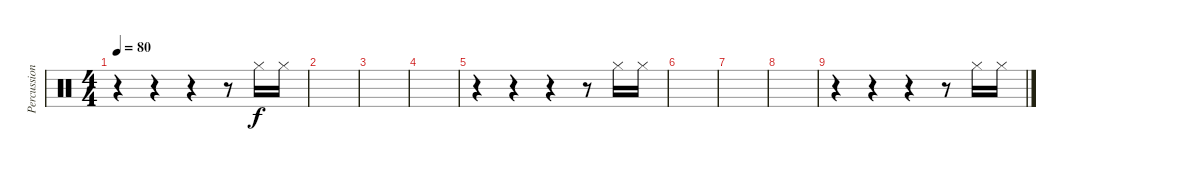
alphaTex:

\track ("Percussions" "Percussion") {instrument percussion}
\staff {score}
\articulation defaults
\ts (4 4)
\tempo 80
\clef neutral
\ks c
r.4{dy f} r.4 r.4 r.8 "Hi-Hat (closed)".16 "Hi-Hat (closed)".16 |
|
|
|
r.4 r.4 r.4 r.8 "Hi-Hat (closed)".16 "Hi-Hat (closed)".16 |
|
|
|
r.4 r.4 r.4 r.8 "Hi-Hat (closed)".16 "Hi-Hat (closed)".16
